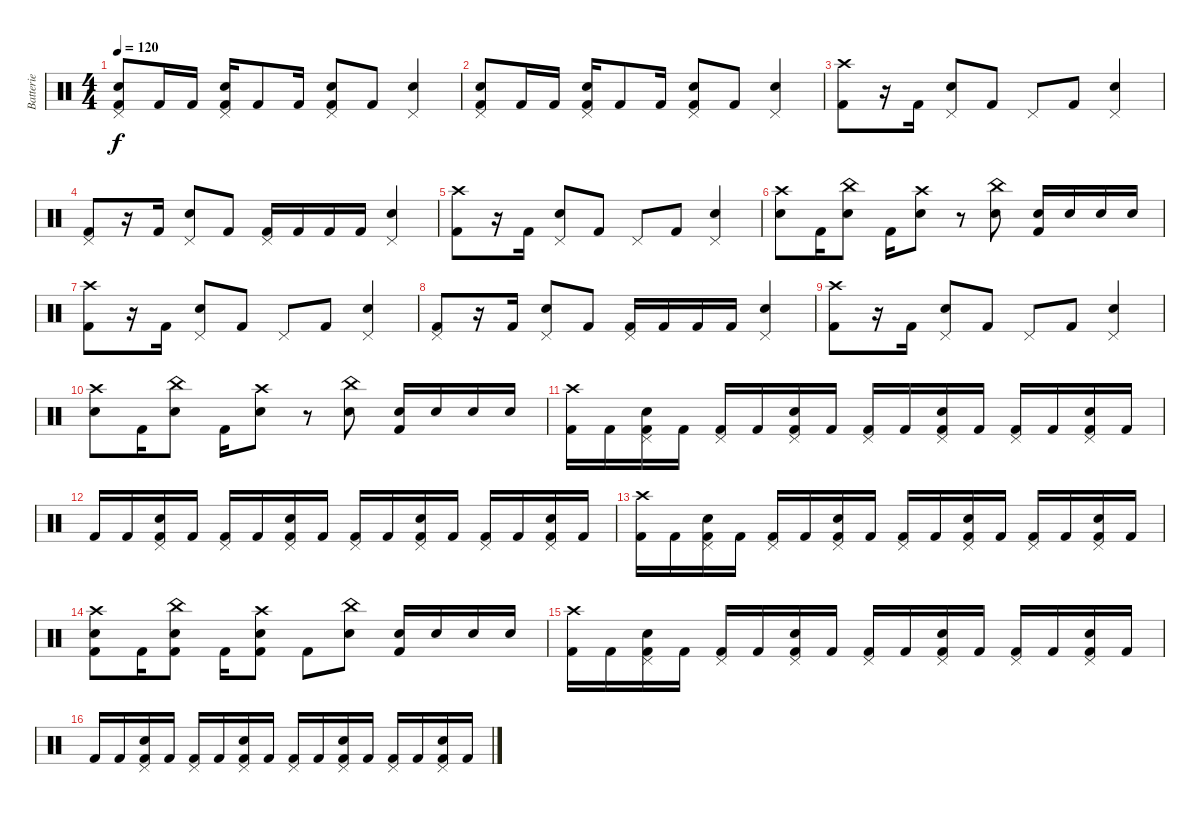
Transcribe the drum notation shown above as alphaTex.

\track ("Batterie" "Batterie") {instrument percussion}
\staff {score}
\articulation defaults
\ts (4 4)
\tempo 120
\clef neutral
\ks c
("Snare (hit) 2" "Kick (hit) 2" "Pedal Hi-Hat (hit)").8{dy f} "Kick (hit) 2".16 "Kick (hit) 2".16 ("Snare (hit) 2" "Kick (hit) 2" "Pedal Hi-Hat (hit)").16 "Kick (hit) 2".8 "Kick (hit) 2".16 ("Snare (hit) 2" "Kick (hit) 2" "Pedal Hi-Hat (hit)").8 "Kick (hit) 2".8 ("Snare (hit) 2" "Pedal Hi-Hat (hit)").4 |
("Snare (hit) 2" "Kick (hit) 2" "Pedal Hi-Hat (hit)").8 "Kick (hit) 2".16 "Kick (hit) 2".16 ("Snare (hit) 2" "Kick (hit) 2" "Pedal Hi-Hat (hit)").16 "Kick (hit) 2".8 "Kick (hit) 2".16 ("Snare (hit) 2" "Kick (hit) 2" "Pedal Hi-Hat (hit)").8 "Kick (hit) 2".8 ("Snare (hit) 2" "Pedal Hi-Hat (hit)").4 |
("Crash high (hit)" "Kick (hit) 2").8 r.16 "Kick (hit) 2".16 ("Snare (hit) 2" "Pedal Hi-Hat (hit)").8 "Kick (hit) 2".8 "Pedal Hi-Hat (hit)".8 "Kick (hit) 2".8 ("Snare (hit) 2" "Pedal Hi-Hat (hit)").4 |
("Kick (hit) 2" "Pedal Hi-Hat (hit)").8 r.16 "Kick (hit) 2".16 ("Snare (hit) 2" "Pedal Hi-Hat (hit)").8 "Kick (hit) 2".8 ("Kick (hit) 2" "Pedal Hi-Hat (hit)").16 "Kick (hit) 2".16 "Kick (hit) 2".16 "Kick (hit) 2".16 ("Snare (hit) 2" "Pedal Hi-Hat (hit)").4 |
("Crash high (hit)" "Kick (hit) 2").8 r.16 "Kick (hit) 2".16 ("Snare (hit) 2" "Pedal Hi-Hat (hit)").8 "Kick (hit) 2".8 "Pedal Hi-Hat (hit)".8 "Kick (hit) 2".8 ("Snare (hit) 2" "Pedal Hi-Hat (hit)").4 |
("Crash high (hit)" "Snare (hit) 2").8 "Kick (hit) 2".16 ("China (hit)" "Snare (hit) 2").8 "Kick (hit) 2".16 ("Crash high (hit)" "Snare (hit) 2").8 r.8 ("China (hit)" "Snare (hit) 2").8 ("Snare (hit) 2" "Kick (hit) 2").16 "Snare (hit) 2".16 "Snare (hit) 2".16 "Snare (hit) 2".16 |
("Crash high (hit)" "Kick (hit) 2").8 r.16 "Kick (hit) 2".16 ("Snare (hit) 2" "Pedal Hi-Hat (hit)").8 "Kick (hit) 2".8 "Pedal Hi-Hat (hit)".8 "Kick (hit) 2".8 ("Snare (hit) 2" "Pedal Hi-Hat (hit)").4 |
("Kick (hit) 2" "Pedal Hi-Hat (hit)").8 r.16 "Kick (hit) 2".16 ("Snare (hit) 2" "Pedal Hi-Hat (hit)").8 "Kick (hit) 2".8 ("Kick (hit) 2" "Pedal Hi-Hat (hit)").16 "Kick (hit) 2".16 "Kick (hit) 2".16 "Kick (hit) 2".16 ("Snare (hit) 2" "Pedal Hi-Hat (hit)").4 |
("Crash high (hit)" "Kick (hit) 2").8 r.16 "Kick (hit) 2".16 ("Snare (hit) 2" "Pedal Hi-Hat (hit)").8 "Kick (hit) 2".8 "Pedal Hi-Hat (hit)".8 "Kick (hit) 2".8 ("Snare (hit) 2" "Pedal Hi-Hat (hit)").4 |
("Crash high (hit)" "Snare (hit) 2").8 "Kick (hit) 2".16 ("China (hit)" "Snare (hit) 2").8 "Kick (hit) 2".16 ("Crash high (hit)" "Snare (hit) 2").8 r.8 ("China (hit)" "Snare (hit) 2").8 ("Snare (hit) 2" "Kick (hit) 2").16 "Snare (hit) 2".16 "Snare (hit) 2".16 "Snare (hit) 2".16 |
("Crash high (hit)" "Kick (hit) 2").16 "Kick (hit) 2".16 ("Snare (hit) 2" "Kick (hit) 2" "Pedal Hi-Hat (hit)").16 "Kick (hit) 2".16 ("Kick (hit) 2" "Pedal Hi-Hat (hit)").16 "Kick (hit) 2".16 ("Snare (hit) 2" "Kick (hit) 2" "Pedal Hi-Hat (hit)").16 "Kick (hit) 2".16 ("Kick (hit) 2" "Pedal Hi-Hat (hit)").16 "Kick (hit) 2".16 ("Snare (hit) 2" "Kick (hit) 2" "Pedal Hi-Hat (hit)").16 "Kick (hit) 2".16 ("Kick (hit) 2" "Pedal Hi-Hat (hit)").16 "Kick (hit) 2".16 ("Snare (hit) 2" "Kick (hit) 2" "Pedal Hi-Hat (hit)").16 "Kick (hit) 2".16 |
"Kick (hit) 2".16 "Kick (hit) 2".16 ("Snare (hit) 2" "Kick (hit) 2" "Pedal Hi-Hat (hit)").16 "Kick (hit) 2".16 ("Kick (hit) 2" "Pedal Hi-Hat (hit)").16 "Kick (hit) 2".16 ("Snare (hit) 2" "Kick (hit) 2" "Pedal Hi-Hat (hit)").16 "Kick (hit) 2".16 ("Kick (hit) 2" "Pedal Hi-Hat (hit)").16 "Kick (hit) 2".16 ("Snare (hit) 2" "Kick (hit) 2" "Pedal Hi-Hat (hit)").16 "Kick (hit) 2".16 ("Kick (hit) 2" "Pedal Hi-Hat (hit)").16 "Kick (hit) 2".16 ("Snare (hit) 2" "Kick (hit) 2" "Pedal Hi-Hat (hit)").16 "Kick (hit) 2".16 |
("Crash high (hit)" "Kick (hit) 2").16 "Kick (hit) 2".16 ("Snare (hit) 2" "Kick (hit) 2" "Pedal Hi-Hat (hit)").16 "Kick (hit) 2".16 ("Kick (hit) 2" "Pedal Hi-Hat (hit)").16 "Kick (hit) 2".16 ("Snare (hit) 2" "Kick (hit) 2" "Pedal Hi-Hat (hit)").16 "Kick (hit) 2".16 ("Kick (hit) 2" "Pedal Hi-Hat (hit)").16 "Kick (hit) 2".16 ("Snare (hit) 2" "Kick (hit) 2" "Pedal Hi-Hat (hit)").16 "Kick (hit) 2".16 ("Kick (hit) 2" "Pedal Hi-Hat (hit)").16 "Kick (hit) 2".16 ("Snare (hit) 2" "Kick (hit) 2" "Pedal Hi-Hat (hit)").16 "Kick (hit) 2".16 |
("Crash high (hit)" "Snare (hit) 2" "Kick (hit) 2").8 "Kick (hit) 2".16 ("China (hit)" "Snare (hit) 2" "Kick (hit) 2").8 "Kick (hit) 2".16 ("Crash high (hit)" "Snare (hit) 2" "Kick (hit) 2").8 "Kick (hit) 2".8 ("China (hit)" "Snare (hit) 2").8 ("Snare (hit) 2" "Kick (hit) 2").16 "Snare (hit) 2".16 "Snare (hit) 2".16 "Snare (hit) 2".16 |
("Crash high (hit)" "Kick (hit) 2").16 "Kick (hit) 2".16 ("Snare (hit) 2" "Kick (hit) 2" "Pedal Hi-Hat (hit)").16 "Kick (hit) 2".16 ("Kick (hit) 2" "Pedal Hi-Hat (hit)").16 "Kick (hit) 2".16 ("Snare (hit) 2" "Kick (hit) 2" "Pedal Hi-Hat (hit)").16 "Kick (hit) 2".16 ("Kick (hit) 2" "Pedal Hi-Hat (hit)").16 "Kick (hit) 2".16 ("Snare (hit) 2" "Kick (hit) 2" "Pedal Hi-Hat (hit)").16 "Kick (hit) 2".16 ("Kick (hit) 2" "Pedal Hi-Hat (hit)").16 "Kick (hit) 2".16 ("Snare (hit) 2" "Kick (hit) 2" "Pedal Hi-Hat (hit)").16 "Kick (hit) 2".16 |
"Kick (hit) 2".16 "Kick (hit) 2".16 ("Snare (hit) 2" "Kick (hit) 2" "Pedal Hi-Hat (hit)").16 "Kick (hit) 2".16 ("Kick (hit) 2" "Pedal Hi-Hat (hit)").16 "Kick (hit) 2".16 ("Snare (hit) 2" "Kick (hit) 2" "Pedal Hi-Hat (hit)").16 "Kick (hit) 2".16 ("Kick (hit) 2" "Pedal Hi-Hat (hit)").16 "Kick (hit) 2".16 ("Snare (hit) 2" "Kick (hit) 2" "Pedal Hi-Hat (hit)").16 "Kick (hit) 2".16 ("Kick (hit) 2" "Pedal Hi-Hat (hit)").16 "Kick (hit) 2".16 ("Snare (hit) 2" "Kick (hit) 2" "Pedal Hi-Hat (hit)").16 "Kick (hit) 2".16
